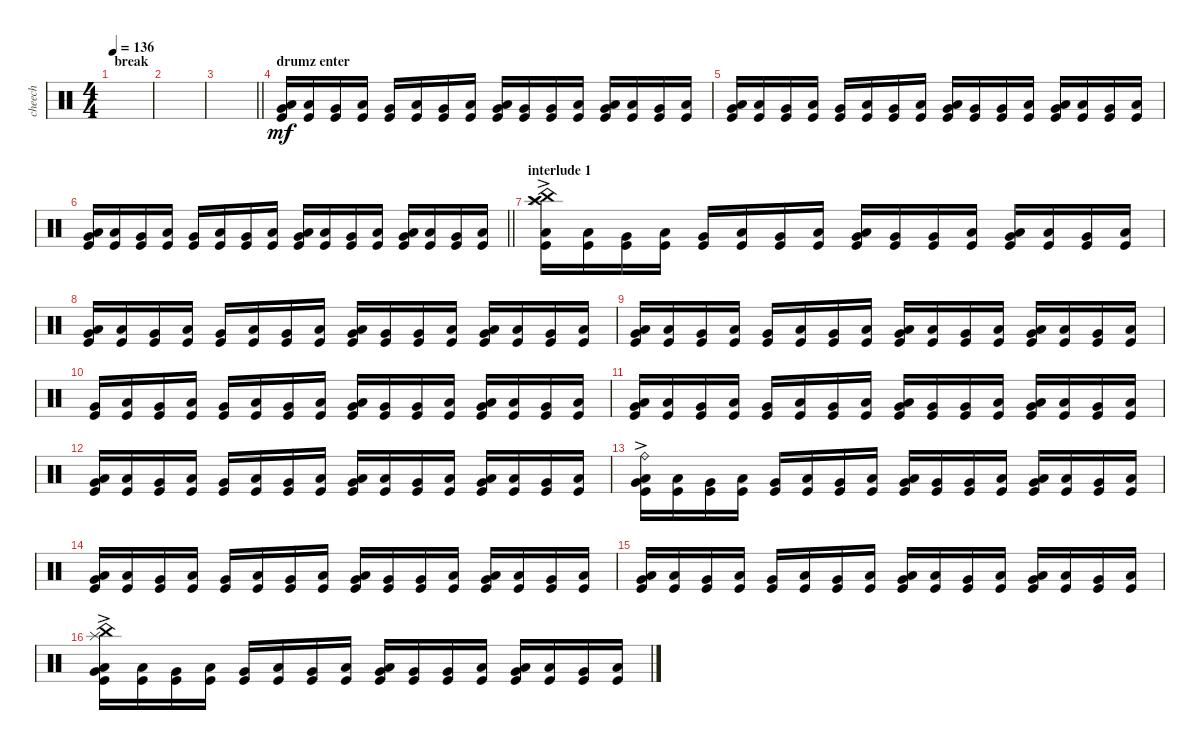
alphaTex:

\track ("cheech" "cheech") {instrument percussion}
\staff {score}
\articulation defaults
\ts (4 4)
\section ("" "break")
\tempo 136
\clef neutral
\ks c
|
|
\barLineRight lightlight
|
\section ("" "drumz enter")
("Very Low Tom (hit)" "Low Floor Tom (hit)" "Kick (hit)").16{dy mf} ("Low Tom (hit)" "Kick (hit)").16 ("Very Low Tom (hit)" "Kick (hit)").16 ("Low Floor Tom (hit)" "Kick (hit)").16 ("Very Low Tom (hit)" "Kick (hit)").16 ("Low Floor Tom (hit)" "Kick (hit)").16 ("Very Low Tom (hit)" "Kick (hit)").16 ("Low Floor Tom (hit)" "Kick (hit)").16 ("Very Low Tom (hit)" "Low Floor Tom (hit)" "Kick (hit)").16 ("Very Low Tom (hit)" "Kick (hit)").16 ("Very Low Tom (hit)" "Kick (hit)").16 ("Low Floor Tom (hit)" "Kick (hit)").16 ("Very Low Tom (hit)" "Low Floor Tom (hit)" "Kick (hit)").16 ("Low Floor Tom (hit)" "Kick (hit)").16 ("Very Low Tom (hit)" "Kick (hit)").16 ("Low Floor Tom (hit)" "Kick (hit)").16 |
("Very Low Tom (hit)" "Low Floor Tom (hit)" "Kick (hit)").16 ("Low Tom (hit)" "Kick (hit)").16 ("Very Low Tom (hit)" "Kick (hit)").16 ("Low Floor Tom (hit)" "Kick (hit)").16 ("Very Low Tom (hit)" "Kick (hit)").16 ("Low Floor Tom (hit)" "Kick (hit)").16 ("Very Low Tom (hit)" "Kick (hit)").16 ("Low Floor Tom (hit)" "Kick (hit)").16 ("Very Low Tom (hit)" "Low Floor Tom (hit)" "Kick (hit)").16 ("Very Low Tom (hit)" "Kick (hit)").16 ("Very Low Tom (hit)" "Kick (hit)").16 ("Low Floor Tom (hit)" "Kick (hit)").16 ("Very Low Tom (hit)" "Low Floor Tom (hit)" "Kick (hit)").16 ("Low Floor Tom (hit)" "Kick (hit)").16 ("Very Low Tom (hit)" "Kick (hit)").16 ("Low Floor Tom (hit)" "Kick (hit)").16 |
\barLineRight lightlight
("Very Low Tom (hit)" "Low Floor Tom (hit)" "Kick (hit)").16 ("Low Tom (hit)" "Kick (hit)").16 ("Very Low Tom (hit)" "Kick (hit)").16 ("Low Floor Tom (hit)" "Kick (hit)").16 ("Very Low Tom (hit)" "Kick (hit)").16 ("Low Floor Tom (hit)" "Kick (hit)").16 ("Very Low Tom (hit)" "Kick (hit)").16 ("Low Floor Tom (hit)" "Kick (hit)").16 ("Very Low Tom (hit)" "Low Floor Tom (hit)" "Kick (hit)").16 ("Low Tom (hit)" "Kick (hit)").16 ("Very Low Tom (hit)" "Kick (hit)").16 ("Low Floor Tom (hit)" "Kick (hit)").16 ("Very Low Tom (hit)" "Low Floor Tom (hit)" "Kick (hit)").16 ("Low Floor Tom (hit)" "Kick (hit)").16 ("Very Low Tom (hit)" "Kick (hit)").16 ("Low Floor Tom (hit)" "Kick (hit)").16 |
\section ("" "interlude 1")
("China (hit)"{ac} "Splash (hit)" "Crash high (hit)" "Low Floor Tom (hit)" "Kick (hit)").16 ("Low Tom (hit)" "Kick (hit)").16 ("Very Low Tom (hit)" "Kick (hit)").16 ("Low Floor Tom (hit)" "Kick (hit)").16 ("Very Low Tom (hit)" "Kick (hit)").16 ("Low Floor Tom (hit)" "Kick (hit)").16 ("Very Low Tom (hit)" "Kick (hit)").16 ("Low Floor Tom (hit)" "Kick (hit)").16 ("Very Low Tom (hit)" "Low Floor Tom (hit)" "Kick (hit)").16 ("Very Low Tom (hit)" "Kick (hit)").16 ("Very Low Tom (hit)" "Kick (hit)").16 ("Low Floor Tom (hit)" "Kick (hit)").16 ("Very Low Tom (hit)" "Low Floor Tom (hit)" "Kick (hit)").16 ("Low Floor Tom (hit)" "Kick (hit)").16 ("Very Low Tom (hit)" "Kick (hit)").16 ("Low Floor Tom (hit)" "Kick (hit)").16 |
("Very Low Tom (hit)" "Low Floor Tom (hit)" "Kick (hit)").16 ("Low Tom (hit)" "Kick (hit)").16 ("Very Low Tom (hit)" "Kick (hit)").16 ("Low Floor Tom (hit)" "Kick (hit)").16 ("Very Low Tom (hit)" "Kick (hit)").16 ("Low Floor Tom (hit)" "Kick (hit)").16 ("Very Low Tom (hit)" "Kick (hit)").16 ("Low Floor Tom (hit)" "Kick (hit)").16 ("Very Low Tom (hit)" "Low Floor Tom (hit)" "Kick (hit)").16 ("Very Low Tom (hit)" "Kick (hit)").16 ("Very Low Tom (hit)" "Kick (hit)").16 ("Low Floor Tom (hit)" "Kick (hit)").16 ("Very Low Tom (hit)" "Low Floor Tom (hit)" "Kick (hit)").16 ("Low Floor Tom (hit)" "Kick (hit)").16 ("Very Low Tom (hit)" "Kick (hit)").16 ("Low Floor Tom (hit)" "Kick (hit)").16 |
("Very Low Tom (hit)" "Low Floor Tom (hit)" "Kick (hit)").16 ("Low Tom (hit)" "Kick (hit)").16 ("Very Low Tom (hit)" "Kick (hit)").16 ("Low Floor Tom (hit)" "Kick (hit)").16 ("Very Low Tom (hit)" "Kick (hit)").16 ("Low Floor Tom (hit)" "Kick (hit)").16 ("Very Low Tom (hit)" "Kick (hit)").16 ("Low Floor Tom (hit)" "Kick (hit)").16 ("Very Low Tom (hit)" "Low Floor Tom (hit)" "Kick (hit)").16 ("Low Tom (hit)" "Kick (hit)").16 ("Very Low Tom (hit)" "Kick (hit)").16 ("Low Floor Tom (hit)" "Kick (hit)").16 ("Very Low Tom (hit)" "Low Floor Tom (hit)" "Kick (hit)").16 ("Low Floor Tom (hit)" "Kick (hit)").16 ("Very Low Tom (hit)" "Kick (hit)").16 ("Low Floor Tom (hit)" "Kick (hit)").16 |
("Very Low Tom (hit)" "Kick (hit)").16 ("Low Tom (hit)" "Kick (hit)").16 ("Very Low Tom (hit)" "Kick (hit)").16 ("Low Floor Tom (hit)" "Kick (hit)").16 ("Very Low Tom (hit)" "Kick (hit)").16 ("Low Floor Tom (hit)" "Kick (hit)").16 ("Very Low Tom (hit)" "Kick (hit)").16 ("Low Floor Tom (hit)" "Kick (hit)").16 ("Very Low Tom (hit)" "Low Floor Tom (hit)" "Kick (hit)").16 ("Very Low Tom (hit)" "Kick (hit)").16 ("Very Low Tom (hit)" "Kick (hit)").16 ("Low Floor Tom (hit)" "Kick (hit)").16 ("Very Low Tom (hit)" "Low Floor Tom (hit)" "Kick (hit)").16 ("Low Floor Tom (hit)" "Kick (hit)").16 ("Very Low Tom (hit)" "Kick (hit)").16 ("Low Floor Tom (hit)" "Kick (hit)").16 |
("Very Low Tom (hit)" "Low Floor Tom (hit)" "Kick (hit)").16 ("Low Tom (hit)" "Kick (hit)").16 ("Very Low Tom (hit)" "Kick (hit)").16 ("Low Floor Tom (hit)" "Kick (hit)").16 ("Very Low Tom (hit)" "Kick (hit)").16 ("Low Floor Tom (hit)" "Kick (hit)").16 ("Very Low Tom (hit)" "Kick (hit)").16 ("Low Floor Tom (hit)" "Kick (hit)").16 ("Very Low Tom (hit)" "Low Floor Tom (hit)" "Kick (hit)").16 ("Very Low Tom (hit)" "Kick (hit)").16 ("Very Low Tom (hit)" "Kick (hit)").16 ("Low Floor Tom (hit)" "Kick (hit)").16 ("Very Low Tom (hit)" "Low Floor Tom (hit)" "Kick (hit)").16 ("Low Floor Tom (hit)" "Kick (hit)").16 ("Very Low Tom (hit)" "Kick (hit)").16 ("Low Floor Tom (hit)" "Kick (hit)").16 |
("Very Low Tom (hit)" "Low Floor Tom (hit)" "Kick (hit)").16 ("Low Tom (hit)" "Kick (hit)").16 ("Very Low Tom (hit)" "Kick (hit)").16 ("Low Floor Tom (hit)" "Kick (hit)").16 ("Very Low Tom (hit)" "Kick (hit)").16 ("Low Floor Tom (hit)" "Kick (hit)").16 ("Very Low Tom (hit)" "Kick (hit)").16 ("Low Floor Tom (hit)" "Kick (hit)").16 ("Very Low Tom (hit)" "Low Floor Tom (hit)" "Kick (hit)").16 ("Low Tom (hit)" "Kick (hit)").16 ("Very Low Tom (hit)" "Kick (hit)").16 ("Low Floor Tom (hit)" "Kick (hit)").16 ("Very Low Tom (hit)" "Low Floor Tom (hit)" "Kick (hit)").16 ("Low Floor Tom (hit)" "Kick (hit)").16 ("Very Low Tom (hit)" "Kick (hit)").16 ("Low Floor Tom (hit)" "Kick (hit)").16 |
("Ride (bell)"{ac} "Very Low Tom (hit)" "Low Floor Tom (hit)" "Kick (hit)").16 ("Low Tom (hit)" "Kick (hit)").16 ("Very Low Tom (hit)" "Kick (hit)").16 ("Low Floor Tom (hit)" "Kick (hit)").16 ("Very Low Tom (hit)" "Kick (hit)").16 ("Low Floor Tom (hit)" "Kick (hit)").16 ("Very Low Tom (hit)" "Kick (hit)").16 ("Low Floor Tom (hit)" "Kick (hit)").16 ("Very Low Tom (hit)" "Low Floor Tom (hit)" "Kick (hit)").16 ("Very Low Tom (hit)" "Kick (hit)").16 ("Very Low Tom (hit)" "Kick (hit)").16 ("Low Floor Tom (hit)" "Kick (hit)").16 ("Very Low Tom (hit)" "Low Floor Tom (hit)" "Kick (hit)").16 ("Low Floor Tom (hit)" "Kick (hit)").16 ("Very Low Tom (hit)" "Kick (hit)").16 ("Low Floor Tom (hit)" "Kick (hit)").16 |
("Very Low Tom (hit)" "Low Floor Tom (hit)" "Kick (hit)").16 ("Low Tom (hit)" "Kick (hit)").16 ("Very Low Tom (hit)" "Kick (hit)").16 ("Low Floor Tom (hit)" "Kick (hit)").16 ("Very Low Tom (hit)" "Kick (hit)").16 ("Low Floor Tom (hit)" "Kick (hit)").16 ("Very Low Tom (hit)" "Kick (hit)").16 ("Low Floor Tom (hit)" "Kick (hit)").16 ("Very Low Tom (hit)" "Low Floor Tom (hit)" "Kick (hit)").16 ("Very Low Tom (hit)" "Kick (hit)").16 ("Very Low Tom (hit)" "Kick (hit)").16 ("Low Floor Tom (hit)" "Kick (hit)").16 ("Very Low Tom (hit)" "Low Floor Tom (hit)" "Kick (hit)").16 ("Low Floor Tom (hit)" "Kick (hit)").16 ("Very Low Tom (hit)" "Kick (hit)").16 ("Low Floor Tom (hit)" "Kick (hit)").16 |
("Very Low Tom (hit)" "Low Floor Tom (hit)" "Kick (hit)").16 ("Low Tom (hit)" "Kick (hit)").16 ("Very Low Tom (hit)" "Kick (hit)").16 ("Low Floor Tom (hit)" "Kick (hit)").16 ("Very Low Tom (hit)" "Kick (hit)").16 ("Low Floor Tom (hit)" "Kick (hit)").16 ("Very Low Tom (hit)" "Kick (hit)").16 ("Low Floor Tom (hit)" "Kick (hit)").16 ("Very Low Tom (hit)" "Low Floor Tom (hit)" "Kick (hit)").16 ("Low Tom (hit)" "Kick (hit)").16 ("Very Low Tom (hit)" "Kick (hit)").16 ("Low Floor Tom (hit)" "Kick (hit)").16 ("Very Low Tom (hit)" "Low Floor Tom (hit)" "Kick (hit)").16 ("Low Floor Tom (hit)" "Kick (hit)").16 ("Very Low Tom (hit)" "Kick (hit)").16 ("Low Floor Tom (hit)" "Kick (hit)").16 |
("China (hit)"{ac} "Splash (hit)" "Very Low Tom (hit)" "Low Floor Tom (hit)" "Kick (hit)").16 ("Low Tom (hit)" "Kick (hit)").16 ("Very Low Tom (hit)" "Kick (hit)").16 ("Low Floor Tom (hit)" "Kick (hit)").16 ("Very Low Tom (hit)" "Kick (hit)").16 ("Low Floor Tom (hit)" "Kick (hit)").16 ("Very Low Tom (hit)" "Kick (hit)").16 ("Low Floor Tom (hit)" "Kick (hit)").16 ("Very Low Tom (hit)" "Low Floor Tom (hit)" "Kick (hit)").16 ("Very Low Tom (hit)" "Kick (hit)").16 ("Very Low Tom (hit)" "Kick (hit)").16 ("Low Floor Tom (hit)" "Kick (hit)").16 ("Very Low Tom (hit)" "Low Floor Tom (hit)" "Kick (hit)").16 ("Low Floor Tom (hit)" "Kick (hit)").16 ("Very Low Tom (hit)" "Kick (hit)").16 ("Low Floor Tom (hit)" "Kick (hit)").16
